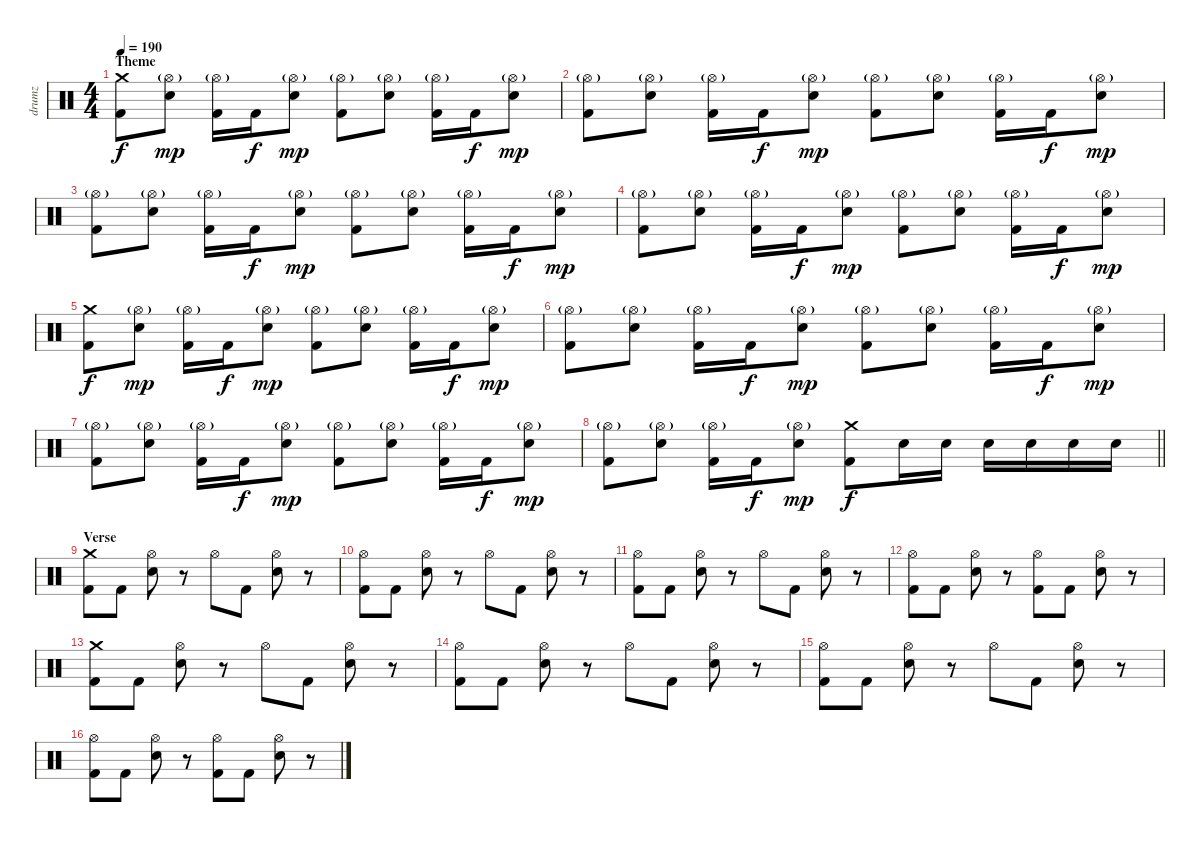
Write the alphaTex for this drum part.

\track ("drumz" "drumz") {instrument percussion}
\staff {score}
\articulation defaults
\ts (4 4)
\section ("" "Theme")
\tempo 190
\clef neutral
\ks c
("Crash medium (hit)" "Kick (hit) 2").8{dy f} ("Hi-Hat (open)"{g} "Electric Snare (hit)").8{dy mp} ("Hi-Hat (open)"{g} "Kick (hit) 2").16 "Kick (hit) 2".16{dy f} ("Hi-Hat (open)"{g} "Electric Snare (hit)").8{dy mp} ("Hi-Hat (open)"{g} "Kick (hit) 2").8 ("Hi-Hat (open)"{g} "Electric Snare (hit)").8 ("Hi-Hat (open)"{g} "Kick (hit) 2").16 "Kick (hit) 2".16{dy f} ("Hi-Hat (open)"{g} "Electric Snare (hit)").8{dy mp} |
("Hi-Hat (open)"{g} "Kick (hit) 2").8 ("Hi-Hat (open)"{g} "Electric Snare (hit)").8 ("Hi-Hat (open)"{g} "Kick (hit) 2").16 "Kick (hit) 2".16{dy f} ("Hi-Hat (open)"{g} "Electric Snare (hit)").8{dy mp} ("Hi-Hat (open)"{g} "Kick (hit) 2").8 ("Hi-Hat (open)"{g} "Electric Snare (hit)").8 ("Hi-Hat (open)"{g} "Kick (hit) 2").16 "Kick (hit) 2".16{dy f} ("Hi-Hat (open)"{g} "Electric Snare (hit)").8{dy mp} |
("Hi-Hat (open)"{g} "Kick (hit) 2").8 ("Hi-Hat (open)"{g} "Electric Snare (hit)").8 ("Hi-Hat (open)"{g} "Kick (hit) 2").16 "Kick (hit) 2".16{dy f} ("Hi-Hat (open)"{g} "Electric Snare (hit)").8{dy mp} ("Hi-Hat (open)"{g} "Kick (hit) 2").8 ("Hi-Hat (open)"{g} "Electric Snare (hit)").8 ("Hi-Hat (open)"{g} "Kick (hit) 2").16 "Kick (hit) 2".16{dy f} ("Hi-Hat (open)"{g} "Electric Snare (hit)").8{dy mp} |
("Hi-Hat (open)"{g} "Kick (hit) 2").8 ("Hi-Hat (open)"{g} "Electric Snare (hit)").8 ("Hi-Hat (open)"{g} "Kick (hit) 2").16 "Kick (hit) 2".16{dy f} ("Hi-Hat (open)"{g} "Electric Snare (hit)").8{dy mp} ("Hi-Hat (open)"{g} "Kick (hit) 2").8 ("Hi-Hat (open)"{g} "Electric Snare (hit)").8 ("Hi-Hat (open)"{g} "Kick (hit) 2").16 "Kick (hit) 2".16{dy f} ("Hi-Hat (open)"{g} "Electric Snare (hit)").8{dy mp} |
("Crash medium (hit)" "Kick (hit) 2").8{dy f} ("Hi-Hat (open)"{g} "Electric Snare (hit)").8{dy mp} ("Hi-Hat (open)"{g} "Kick (hit) 2").16 "Kick (hit) 2".16{dy f} ("Hi-Hat (open)"{g} "Electric Snare (hit)").8{dy mp} ("Hi-Hat (open)"{g} "Kick (hit) 2").8 ("Hi-Hat (open)"{g} "Electric Snare (hit)").8 ("Hi-Hat (open)"{g} "Kick (hit) 2").16 "Kick (hit) 2".16{dy f} ("Hi-Hat (open)"{g} "Electric Snare (hit)").8{dy mp} |
("Hi-Hat (open)"{g} "Kick (hit) 2").8 ("Hi-Hat (open)"{g} "Electric Snare (hit)").8 ("Hi-Hat (open)"{g} "Kick (hit) 2").16 "Kick (hit) 2".16{dy f} ("Hi-Hat (open)"{g} "Electric Snare (hit)").8{dy mp} ("Hi-Hat (open)"{g} "Kick (hit) 2").8 ("Hi-Hat (open)"{g} "Electric Snare (hit)").8 ("Hi-Hat (open)"{g} "Kick (hit) 2").16 "Kick (hit) 2".16{dy f} ("Hi-Hat (open)"{g} "Electric Snare (hit)").8{dy mp} |
("Hi-Hat (open)"{g} "Kick (hit) 2").8 ("Hi-Hat (open)"{g} "Electric Snare (hit)").8 ("Hi-Hat (open)"{g} "Kick (hit) 2").16 "Kick (hit) 2".16{dy f} ("Hi-Hat (open)"{g} "Electric Snare (hit)").8{dy mp} ("Hi-Hat (open)"{g} "Kick (hit) 2").8 ("Hi-Hat (open)"{g} "Electric Snare (hit)").8 ("Hi-Hat (open)"{g} "Kick (hit) 2").16 "Kick (hit) 2".16{dy f} ("Hi-Hat (open)"{g} "Electric Snare (hit)").8{dy mp} |
\barLineRight lightlight
("Hi-Hat (open)"{g} "Kick (hit) 2").8 ("Hi-Hat (open)"{g} "Electric Snare (hit)").8 ("Hi-Hat (open)"{g} "Kick (hit) 2").16 "Kick (hit) 2".16{dy f} ("Hi-Hat (open)"{g} "Electric Snare (hit)").8{dy mp} ("Crash medium (hit)" "Kick (hit) 2").8{dy f} "Electric Snare (hit)".16 "Electric Snare (hit)".16 "Electric Snare (hit)".16 "Electric Snare (hit)".16 "Electric Snare (hit)".16 "Electric Snare (hit)".16 |
\section ("" "Verse")
("Crash medium (hit)" "Kick (hit) 2").8 "Kick (hit) 2".8 ("Hi-Hat (open)" "Electric Snare (hit)").8 r.8 "Hi-Hat (open)".8 "Kick (hit) 2".8 ("Hi-Hat (open)" "Electric Snare (hit)").8 r.8 |
("Hi-Hat (open)" "Kick (hit) 2").8 "Kick (hit) 2".8 ("Hi-Hat (open)" "Electric Snare (hit)").8 r.8 "Hi-Hat (open)".8 "Kick (hit) 2".8 ("Hi-Hat (open)" "Electric Snare (hit)").8 r.8 |
("Hi-Hat (open)" "Kick (hit) 2").8 "Kick (hit) 2".8 ("Hi-Hat (open)" "Electric Snare (hit)").8 r.8 "Hi-Hat (open)".8 "Kick (hit) 2".8 ("Hi-Hat (open)" "Electric Snare (hit)").8 r.8 |
("Hi-Hat (open)" "Kick (hit) 2").8 "Kick (hit) 2".8 ("Hi-Hat (open)" "Electric Snare (hit)").8 r.8 ("Hi-Hat (open)" "Kick (hit) 2").8 "Kick (hit) 2".8 ("Hi-Hat (open)" "Electric Snare (hit)").8 r.8 |
("Crash medium (hit)" "Kick (hit) 2").8 "Kick (hit) 2".8 ("Hi-Hat (open)" "Electric Snare (hit)").8 r.8 "Hi-Hat (open)".8 "Kick (hit) 2".8 ("Hi-Hat (open)" "Electric Snare (hit)").8 r.8 |
("Hi-Hat (open)" "Kick (hit) 2").8 "Kick (hit) 2".8 ("Hi-Hat (open)" "Electric Snare (hit)").8 r.8 "Hi-Hat (open)".8 "Kick (hit) 2".8 ("Hi-Hat (open)" "Electric Snare (hit)").8 r.8 |
("Hi-Hat (open)" "Kick (hit) 2").8 "Kick (hit) 2".8 ("Hi-Hat (open)" "Electric Snare (hit)").8 r.8 "Hi-Hat (open)".8 "Kick (hit) 2".8 ("Hi-Hat (open)" "Electric Snare (hit)").8 r.8 |
("Hi-Hat (open)" "Kick (hit) 2").8 "Kick (hit) 2".8 ("Hi-Hat (open)" "Electric Snare (hit)").8 r.8 ("Hi-Hat (open)" "Kick (hit) 2").8 "Kick (hit) 2".8 ("Hi-Hat (open)" "Electric Snare (hit)").8 r.8
